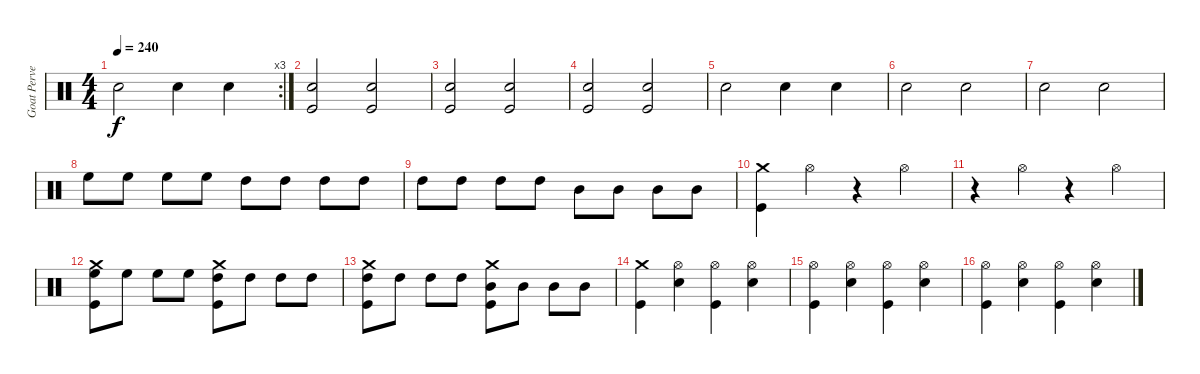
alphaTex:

\track ("Goat Pervertor" "Goat Perve") {instrument percussion}
\staff {score}
\articulation defaults
\rc 3
\ts (4 4)
\tempo 240
\clef neutral
\ks c "Snare (hit) 2".2{dy f} "Snare (hit) 2".4 "Snare (hit) 2".4
|
("Snare (hit) 2" "Kick (hit)").2 ("Snare (hit) 2" "Kick (hit)").2 |
("Snare (hit) 2" "Kick (hit)").2 ("Snare (hit) 2" "Kick (hit)").2 |
("Snare (hit) 2" "Kick (hit)").2 ("Snare (hit) 2" "Kick (hit)").2 |
"Snare (hit) 2".2 "Snare (hit) 2".4 "Snare (hit) 2".4 |
"Snare (hit) 2".2 "Snare (hit) 2".2 |
"Snare (hit) 2".2 "Snare (hit) 2".2 |
"High Floor Tom (hit)".8 "High Floor Tom (hit)".8 "High Floor Tom (hit)".8 "High Floor Tom (hit)".8 "High Tom (hit)".8 "High Tom (hit)".8 "High Tom (hit)".8 "High Tom (hit)".8 |
"High Tom (hit)".8 "High Tom (hit)".8 "High Tom (hit)".8 "High Tom (hit)".8 "Mid Tom (hit)".8 "Mid Tom (hit)".8 "Mid Tom (hit)".8 "Mid Tom (hit)".8 |
("Crash medium (hit)" "Kick (hit)").4 "Hi-Hat (open)".4 r.4 "Hi-Hat (open)".4 |
r.4 "Hi-Hat (open)".4 r.4 "Hi-Hat (open)".4 |
("High Floor Tom (hit)" "Kick (hit)" "Crash medium (hit)").8 "High Floor Tom (hit)".8 "High Floor Tom (hit)".8 "High Floor Tom (hit)".8 ("High Tom (hit)" "Kick (hit)" "Crash medium (hit)").8 "High Tom (hit)".8 "High Tom (hit)".8 "High Tom (hit)".8 |
("High Tom (hit)" "Kick (hit)" "Crash medium (hit)").8 "High Tom (hit)".8 "High Tom (hit)".8 "High Tom (hit)".8 ("Mid Tom (hit)" "Kick (hit)" "Crash medium (hit)").8 "Mid Tom (hit)".8 "Mid Tom (hit)".8 "Mid Tom (hit)".8 |
("Kick (hit)" "Crash medium (hit)").4 ("Snare (hit) 2" "Hi-Hat (open)").4 ("Kick (hit)" "Hi-Hat (open)").4 ("Snare (hit) 2" "Hi-Hat (open)").4 |
("Kick (hit)" "Hi-Hat (open)").4 ("Snare (hit) 2" "Hi-Hat (open)").4 ("Kick (hit)" "Hi-Hat (open)").4 ("Snare (hit) 2" "Hi-Hat (open)").4 |
("Kick (hit)" "Hi-Hat (open)").4 ("Snare (hit) 2" "Hi-Hat (open)").4 ("Kick (hit)" "Hi-Hat (open)").4 ("Snare (hit) 2" "Hi-Hat (open)").4
